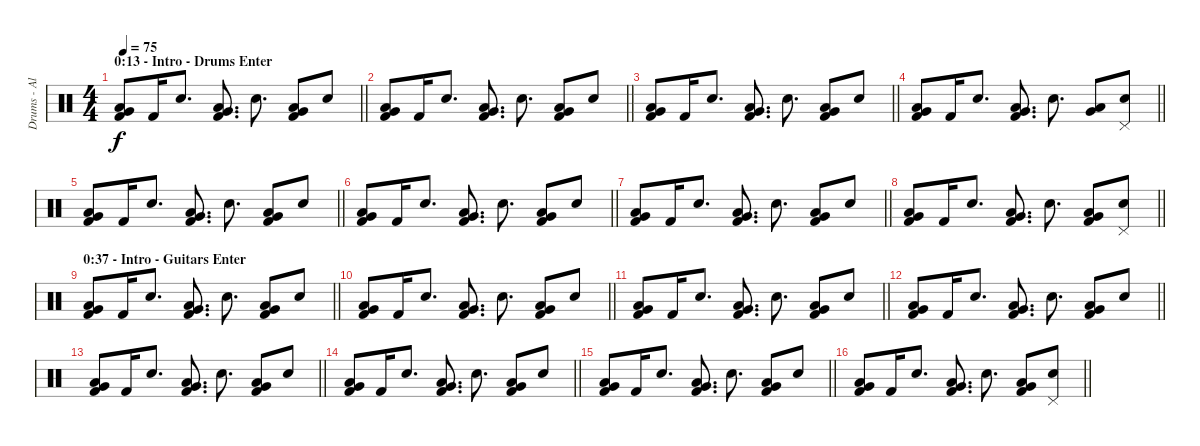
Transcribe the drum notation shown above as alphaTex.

\track ("Drums - Alex Wank" "Drums - Al") {instrument percussion}
\staff {score}
\articulation defaults
\ts (4 4)
\section ("" "0:13 - Intro - Drums Enter")
\tempo 75
\clef neutral
\barLineRight lightlight
\ks c
("Low Floor Tom (hit)" "Very Low Tom (hit)" "Kick (hit) 2").8{dy f volume 0} "Kick (hit) 2".16{volume 16} "Electric Snare (hit)".8{d} ("Low Floor Tom (hit)" "Very Low Tom (hit)" "Kick (hit) 2").8{d} "Electric Snare (hit)".8{d} ("Low Floor Tom (hit)" "Very Low Tom (hit)" "Kick (hit) 2").8 "Electric Snare (hit)".8 |
\barLineRight lightlight
("Low Floor Tom (hit)" "Very Low Tom (hit)" "Kick (hit) 2").8 "Kick (hit) 2".16 "Electric Snare (hit)".8{d} ("Low Floor Tom (hit)" "Very Low Tom (hit)" "Kick (hit) 2").8{d} "Electric Snare (hit)".8{d} ("Low Floor Tom (hit)" "Very Low Tom (hit)" "Kick (hit) 2").8 "Electric Snare (hit)".8 |
\barLineRight lightlight
("Low Floor Tom (hit)" "Very Low Tom (hit)" "Kick (hit) 2").8 "Kick (hit) 2".16 "Electric Snare (hit)".8{d} ("Low Floor Tom (hit)" "Very Low Tom (hit)" "Kick (hit) 2").8{d} "Electric Snare (hit)".8{d} ("Low Floor Tom (hit)" "Very Low Tom (hit)" "Kick (hit) 2").8 "Electric Snare (hit)".8 |
\barLineRight lightlight
("Low Floor Tom (hit)" "Very Low Tom (hit)" "Kick (hit) 2").8 "Kick (hit) 2".16 "Electric Snare (hit)".8{d} ("Low Floor Tom (hit)" "Very Low Tom (hit)" "Kick (hit) 2").8{d} "Electric Snare (hit)".8{d} ("Low Floor Tom (hit)" "Very Low Tom (hit)").8 ("Pedal Hi-Hat (hit)" "Electric Snare (hit)").8 |
\barLineRight lightlight
("Low Floor Tom (hit)" "Very Low Tom (hit)" "Kick (hit) 2").8 "Kick (hit) 2".16 "Electric Snare (hit)".8{d} ("Low Floor Tom (hit)" "Very Low Tom (hit)" "Kick (hit) 2").8{d} "Electric Snare (hit)".8{d} ("Low Floor Tom (hit)" "Very Low Tom (hit)" "Kick (hit) 2").8 "Electric Snare (hit)".8 |
\barLineRight lightlight
("Low Floor Tom (hit)" "Very Low Tom (hit)" "Kick (hit) 2").8 "Kick (hit) 2".16 "Electric Snare (hit)".8{d} ("Low Floor Tom (hit)" "Very Low Tom (hit)" "Kick (hit) 2").8{d} "Electric Snare (hit)".8{d} ("Low Floor Tom (hit)" "Very Low Tom (hit)" "Kick (hit) 2").8 "Electric Snare (hit)".8 |
\barLineRight lightlight
("Low Floor Tom (hit)" "Very Low Tom (hit)" "Kick (hit) 2").8 "Kick (hit) 2".16 "Electric Snare (hit)".8{d} ("Low Floor Tom (hit)" "Very Low Tom (hit)" "Kick (hit) 2").8{d} "Electric Snare (hit)".8{d} ("Low Floor Tom (hit)" "Very Low Tom (hit)" "Kick (hit) 2").8 "Electric Snare (hit)".8 |
\barLineRight lightlight
("Low Floor Tom (hit)" "Very Low Tom (hit)" "Kick (hit) 2").8 "Kick (hit) 2".16 "Electric Snare (hit)".8{d} ("Low Floor Tom (hit)" "Very Low Tom (hit)" "Kick (hit) 2").8{d} "Electric Snare (hit)".8{d} ("Low Floor Tom (hit)" "Very Low Tom (hit)" "Kick (hit) 2").8 ("Pedal Hi-Hat (hit)" "Electric Snare (hit)").8 |
\section ("" "0:37 - Intro - Guitars Enter")
\barLineRight lightlight
("Low Floor Tom (hit)" "Very Low Tom (hit)" "Kick (hit) 2").8 "Kick (hit) 2".16 "Electric Snare (hit)".8{d} ("Low Floor Tom (hit)" "Very Low Tom (hit)" "Kick (hit) 2").8{d} "Electric Snare (hit)".8{d} ("Low Floor Tom (hit)" "Very Low Tom (hit)" "Kick (hit) 2").8 "Electric Snare (hit)".8 |
\barLineRight lightlight
("Low Floor Tom (hit)" "Very Low Tom (hit)" "Kick (hit) 2").8 "Kick (hit) 2".16 "Electric Snare (hit)".8{d} ("Low Floor Tom (hit)" "Very Low Tom (hit)" "Kick (hit) 2").8{d} "Electric Snare (hit)".8{d} ("Low Floor Tom (hit)" "Very Low Tom (hit)" "Kick (hit) 2").8 "Electric Snare (hit)".8 |
\barLineRight lightlight
("Low Floor Tom (hit)" "Very Low Tom (hit)" "Kick (hit) 2").8 "Kick (hit) 2".16 "Electric Snare (hit)".8{d} ("Low Floor Tom (hit)" "Very Low Tom (hit)" "Kick (hit) 2").8{d} "Electric Snare (hit)".8{d} ("Low Floor Tom (hit)" "Very Low Tom (hit)" "Kick (hit) 2").8 "Electric Snare (hit)".8 |
\barLineRight lightlight
("Low Floor Tom (hit)" "Very Low Tom (hit)" "Kick (hit) 2").8 "Kick (hit) 2".16 "Electric Snare (hit)".8{d} ("Low Floor Tom (hit)" "Very Low Tom (hit)" "Kick (hit) 2").8{d} "Electric Snare (hit)".8{d} ("Low Floor Tom (hit)" "Very Low Tom (hit)" "Kick (hit) 2").8 "Electric Snare (hit)".8 |
\barLineRight lightlight
("Low Floor Tom (hit)" "Very Low Tom (hit)" "Kick (hit) 2").8 "Kick (hit) 2".16 "Electric Snare (hit)".8{d} ("Low Floor Tom (hit)" "Very Low Tom (hit)" "Kick (hit) 2").8{d} "Electric Snare (hit)".8{d} ("Low Floor Tom (hit)" "Very Low Tom (hit)" "Kick (hit) 2").8 "Electric Snare (hit)".8 |
\barLineRight lightlight
("Low Floor Tom (hit)" "Very Low Tom (hit)" "Kick (hit) 2").8 "Kick (hit) 2".16 "Electric Snare (hit)".8{d} ("Low Floor Tom (hit)" "Very Low Tom (hit)" "Kick (hit) 2").8{d} "Electric Snare (hit)".8{d} ("Low Floor Tom (hit)" "Very Low Tom (hit)" "Kick (hit) 2").8 "Electric Snare (hit)".8 |
\barLineRight lightlight
("Low Floor Tom (hit)" "Very Low Tom (hit)" "Kick (hit) 2").8 "Kick (hit) 2".16 "Electric Snare (hit)".8{d} ("Low Floor Tom (hit)" "Very Low Tom (hit)" "Kick (hit) 2").8{d} "Electric Snare (hit)".8{d} ("Low Floor Tom (hit)" "Very Low Tom (hit)" "Kick (hit) 2").8 "Electric Snare (hit)".8 |
\barLineRight lightlight
("Low Floor Tom (hit)" "Very Low Tom (hit)" "Kick (hit) 2").8 "Kick (hit) 2".16 "Electric Snare (hit)".8{d} ("Low Floor Tom (hit)" "Very Low Tom (hit)" "Kick (hit) 2").8{d} "Electric Snare (hit)".8{d} ("Low Floor Tom (hit)" "Very Low Tom (hit)" "Kick (hit) 2").8 ("Pedal Hi-Hat (hit)" "Electric Snare (hit)").8
